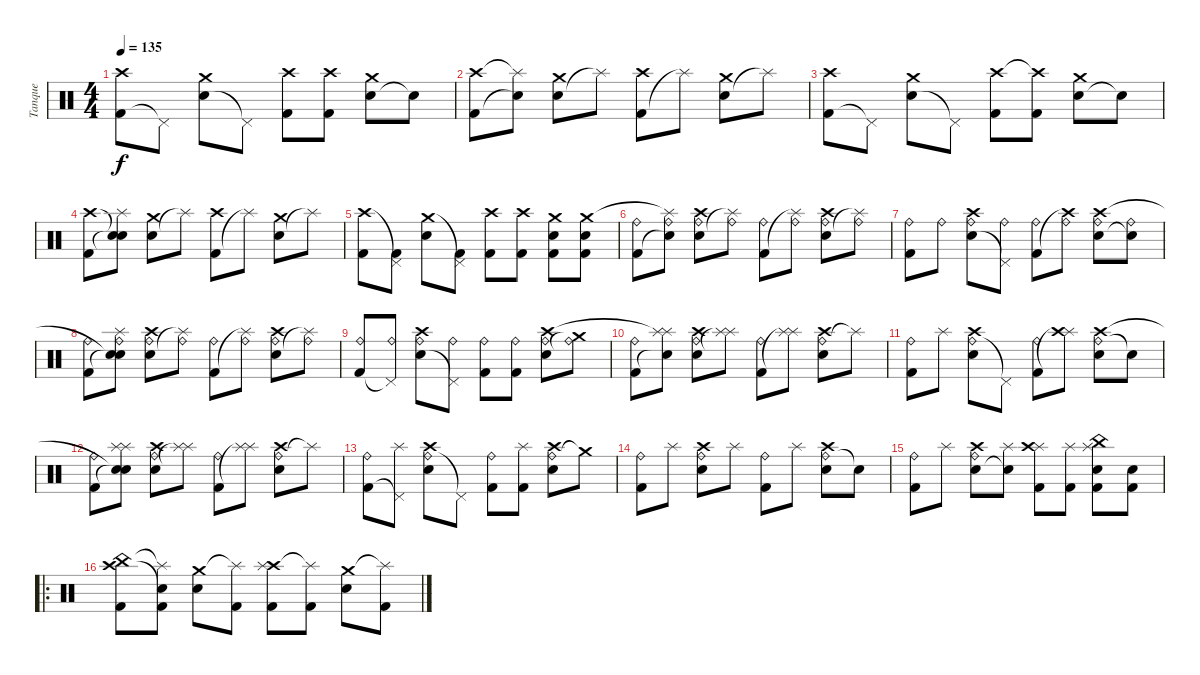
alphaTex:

\track ("Tanque" "Tanque") {instrument percussion}
\staff {score}
\articulation defaults
\ts (4 4)
\tempo 135
\clef neutral
\ks c
("Kick (hit) 2" "Crash high (hit)").8{dy f} "Pedal Hi-Hat (hit)"{t}.8 ("Snare (hit) 2" "Crash medium (hit)").8 "Pedal Hi-Hat (hit)"{t}.8 ("Kick (hit) 2" "Crash high (hit)").8 ("Kick (hit) 2" "Crash high (hit)").8 ("Snare (hit) 2" "Crash medium (hit)").8 "Snare (hit)"{t}.8 |
("Kick (hit) 2" "Crash high (hit)").8 ("Snare (hit)"{t} "Splash (hit)"{t}).8 ("Snare (hit) 2" "Crash medium (hit)").8 "Splash (hit)"{t}.8 ("Kick (hit) 2" "Crash high (hit)").8 "Splash (hit)"{t}.8 ("Snare (hit) 2" "Crash medium (hit)").8 "Splash (hit)"{t}.8 |
("Kick (hit) 2" "Crash high (hit)").8 "Pedal Hi-Hat (hit)"{t}.8 ("Snare (hit) 2" "Crash medium (hit)").8 "Pedal Hi-Hat (hit)"{t}.8 ("Kick (hit) 2" "Crash high (hit)").8 ("Kick (hit) 2" "Crash high (hit)"{t}).8 ("Snare (hit) 2" "Crash medium (hit)").8 "Snare (hit)"{t}.8 |
("Kick (hit) 2" "Crash high (hit)").8 ("Snare (hit)"{t} "Snare (hit)"{t} "Splash (hit)").8 ("Snare (hit) 2" "Crash medium (hit)").8 "Splash (hit)"{t}.8 ("Kick (hit) 2" "Crash high (hit)").8 "Splash (hit)"{t}.8 ("Snare (hit) 2" "Crash medium (hit)").8 "Splash (hit)"{t}.8 |
("Kick (hit) 2" "Crash high (hit)").8 ("Kick (hit) 2" "Pedal Hi-Hat (hit)"{t}).8 ("Snare (hit) 2" "Crash medium (hit)").8 ("Kick (hit) 2" "Pedal Hi-Hat (hit)"{t}).8 ("Kick (hit) 2" "Crash high (hit)").8 ("Kick (hit) 2" "Crash high (hit)").8 ("Kick (hit) 2" "Snare (hit) 2" "Crash medium (hit)").8 ("Kick (hit) 2" "Snare (hit) 2" "Crash medium (hit)").8 |
("Ride (bell)" "Kick (hit) 2").8 ("Ride (bell)" "Snare (hit)"{t} "Splash (hit)"{t}).8 ("Ride (bell)" "Snare (hit) 2" "Crash high (hit)").8 ("Ride (bell)" "Splash (hit)"{t}).8 ("Ride (bell)" "Kick (hit) 2").8 ("Ride (bell)" "Splash (hit)"{t}).8 ("Ride (bell)" "Snare (hit) 2" "Crash high (hit)").8 ("Ride (bell)" "Splash (hit)"{t}).8 |
("Ride (bell)" "Kick (hit) 2").8 "Ride (bell)".8 ("Ride (bell)" "Snare (hit) 2" "Crash high (hit)").8 ("Ride (bell)" "Pedal Hi-Hat (hit)"{t}).8 ("Ride (bell)" "Kick (hit) 2").8 ("Ride (bell)" "Crash high (hit)"{t}).8 ("Ride (bell)" "Snare (hit) 2" "Crash high (hit)").8 ("Ride (bell)" "Snare (hit)"{t}).8 |
("Ride (bell)" "Kick (hit) 2").8 ("Ride (bell)" "Snare (hit)"{t} "Snare (hit)"{t} "Splash (hit)").8 ("Ride (bell)" "Snare (hit) 2" "Crash high (hit)").8 ("Ride (bell)" "Splash (hit)"{t}).8 ("Ride (bell)" "Kick (hit) 2").8 ("Ride (bell)" "Splash (hit)"{t}).8 ("Ride (bell)" "Snare (hit) 2" "Crash high (hit)").8 ("Ride (bell)" "Splash (hit)"{t}).8 |
("Ride (bell)" "Kick (hit) 2").8 ("Ride (bell)" "Pedal Hi-Hat (hit)"{t}).8 ("Ride (bell)" "Snare (hit) 2" "Crash high (hit)").8 ("Ride (bell)" "Pedal Hi-Hat (hit)"{t}).8 ("Ride (bell)" "Kick (hit) 2").8 ("Ride (bell)" "Kick (hit) 2").8 ("Ride (bell)" "Snare (hit) 2" "Crash high (hit)").8 ("Ride (bell)" "Crash medium (hit)"{t}).8 |
("Ride (bell)" "Kick (hit) 2").8 ("Splash (hit)" "Snare (hit)"{t} "Splash (hit)"{t}).8 ("Ride (bell)" "Snare (hit) 2" "Crash high (hit)").8 ("Splash (hit)" "Splash (hit)"{t}).8 ("Ride (bell)" "Kick (hit) 2").8 ("Splash (hit)" "Splash (hit)"{t}).8 ("Ride (bell)" "Snare (hit) 2" "Crash high (hit)").8 "Splash (hit)"{t}.8 |
("Ride (bell)" "Kick (hit) 2").8 "Splash (hit)".8 ("Ride (bell)" "Snare (hit) 2" "Crash high (hit)").8 "Pedal Hi-Hat (hit)"{t}.8 ("Ride (bell)" "Kick (hit) 2").8 ("Splash (hit)" "Crash high (hit)"{t}).8 ("Ride (bell)" "Snare (hit) 2" "Crash high (hit)").8 "Snare (hit)"{t}.8 |
("Ride (bell)" "Kick (hit) 2").8 ("Splash (hit)" "Snare (hit)"{t} "Snare (hit)"{t} "Splash (hit)").8 ("Ride (bell)" "Snare (hit) 2" "Crash high (hit)").8 ("Splash (hit)" "Splash (hit)"{t}).8 ("Ride (bell)" "Kick (hit) 2").8 ("Splash (hit)" "Splash (hit)"{t}).8 ("Ride (bell)" "Snare (hit) 2" "Crash high (hit)").8 "Splash (hit)"{t}.8 |
("Ride (bell)" "Kick (hit) 2").8 ("Splash (hit)" "Pedal Hi-Hat (hit)"{t}).8 ("Ride (bell)" "Snare (hit) 2" "Crash high (hit)").8 "Pedal Hi-Hat (hit)"{t}.8 ("Ride (bell)" "Kick (hit) 2").8 ("Splash (hit)" "Kick (hit) 2").8 ("Ride (bell)" "Snare (hit) 2" "Crash high (hit)").8 "Crash medium (hit)"{t}.8 |
("Ride (bell)" "Kick (hit) 2").8 "Splash (hit)".8 ("Ride (bell)" "Snare (hit) 2" "Crash high (hit)").8 "Splash (hit)".8 ("Ride (bell)" "Kick (hit) 2").8 "Splash (hit)".8 ("Ride (bell)" "Snare (hit) 2" "Crash high (hit)").8 "Snare (hit)"{t}.8 |
("Ride (bell)" "Kick (hit) 2").8 "Splash (hit)".8 ("Ride (bell)" "Snare (hit) 2" "Crash high (hit)").8 ("Splash (hit)" "Snare (hit)"{t}).8 ("Splash (hit)" "Kick (hit) 2" "Crash high (hit)").8 ("Splash (hit)" "Kick (hit) 2").8 ("Splash (hit)" "Kick (hit) 2" "Snare (hit) 2" "China (hit)").8 ("Kick (hit) 2" "Snare (hit) 2").8 |
\ro
("Kick (hit) 2" "Crash high (hit)" "China (hit)").8 ("Kick (hit) 2" "Snare (hit)"{t} "Splash (hit)"{t}).8 ("Snare (hit) 2" "Crash medium (hit)").8 ("Kick (hit) 2" "Splash (hit)"{t}).8 ("Kick (hit) 2" "Crash high (hit)" "Splash (hit)").8 ("Kick (hit) 2" "Splash (hit)"{t}).8 ("Snare (hit) 2" "Crash medium (hit)").8 ("Kick (hit) 2" "Splash (hit)"{t}).8
